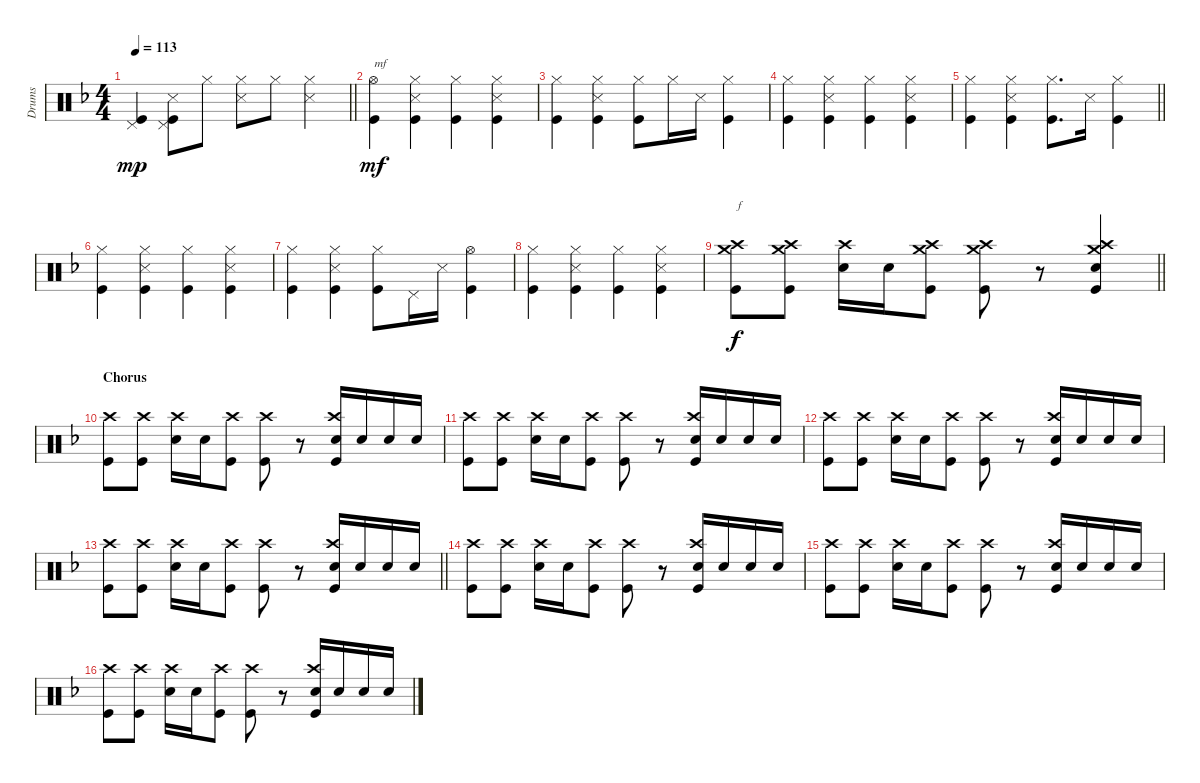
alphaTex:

\track ("Drums" "Drums") {instrument percussion}
\staff {score}
\articulation defaults
\ts (4 4)
\tempo 113
\clef neutral
\barLineRight lightlight
\ks dminor
("Pedal Hi-Hat (hit)" "Kick (hit)").4{dy mp} ("Pedal Hi-Hat (hit)" "Snare (side stick) 3" "Kick (hit)").8 "Hi-Hat (closed)".8 ("Hi-Hat (closed)" "Snare (side stick) 3").8 "Hi-Hat (closed)".8 ("Hi-Hat (closed)" "Snare (side stick) 3").4 |
\section ("" "")
("Hi-Hat (open)" "Kick (hit)").4{txt "mf" dy mf} ("Hi-Hat (closed)" "Snare (side stick) 3" "Kick (hit)").4 ("Hi-Hat (closed)" "Kick (hit)").4 ("Hi-Hat (closed)" "Snare (side stick) 3" "Kick (hit)").4 |
("Hi-Hat (closed)" "Kick (hit)").4 ("Hi-Hat (closed)" "Snare (side stick) 3" "Kick (hit)").4 ("Hi-Hat (closed)" "Kick (hit)").8 "Hi-Hat (closed)".16 "Snare (side stick) 3".16 ("Hi-Hat (closed)" "Kick (hit)").4 |
("Hi-Hat (closed)" "Kick (hit)").4 ("Hi-Hat (closed)" "Snare (side stick) 3" "Kick (hit)").4 ("Hi-Hat (closed)" "Kick (hit)").4 ("Hi-Hat (closed)" "Snare (side stick) 3" "Kick (hit)").4 |
\barLineRight lightlight
("Hi-Hat (closed)" "Kick (hit)").4 ("Hi-Hat (closed)" "Snare (side stick) 3" "Kick (hit)").4 ("Hi-Hat (closed)" "Kick (hit)").8{d} "Snare (side stick) 3".16 ("Hi-Hat (closed)" "Kick (hit)").4 |
\section ("" "")
("Hi-Hat (closed)" "Kick (hit)").4 ("Hi-Hat (closed)" "Snare (side stick) 3" "Kick (hit)").4 ("Hi-Hat (closed)" "Kick (hit)").4 ("Hi-Hat (closed)" "Snare (side stick) 3" "Kick (hit)").4 |
("Hi-Hat (closed)" "Kick (hit)").4 ("Hi-Hat (closed)" "Snare (side stick) 3" "Kick (hit)").4 ("Hi-Hat (closed)" "Kick (hit)").8 "Pedal Hi-Hat (hit)".16 "Snare (side stick) 3".16 ("Hi-Hat (open)" "Kick (hit)").4 |
("Hi-Hat (closed)" "Kick (hit)").4 ("Hi-Hat (closed)" "Snare (side stick) 3" "Kick (hit)").4 ("Hi-Hat (closed)" "Kick (hit)").4 ("Hi-Hat (closed)" "Snare (side stick) 3" "Kick (hit)").4 |
\barLineRight lightlight
("Crash high (hit)" "Crash medium (hit)" "Kick (hit)").8{txt "f" dy f} ("Crash high (hit)" "Crash medium (hit)" "Kick (hit)").8 ("Crash high (hit)" "Electric Snare (hit)").16 "Electric Snare (hit)".16 ("Crash high (hit)" "Crash medium (hit)" "Kick (hit)").8 ("Crash high (hit)" "Crash medium (hit)" "Kick (hit)").8 r.8 ("Crash high (hit)" "Crash medium (hit)" "Electric Snare (hit)" "Kick (hit)").4 |
\section ("" "Chorus")
("Crash high (hit)" "Kick (hit)").8 ("Crash high (hit)" "Kick (hit)").8 ("Crash high (hit)" "Electric Snare (hit)").16 "Electric Snare (hit)".16 ("Crash high (hit)" "Kick (hit)").8 ("Crash high (hit)" "Kick (hit)").8 r.8 ("Crash high (hit)" "Electric Snare (hit)" "Kick (hit)").16 "Electric Snare (hit)".16 "Electric Snare (hit)".16 "Electric Snare (hit)".16 |
("Crash high (hit)" "Kick (hit)").8 ("Crash high (hit)" "Kick (hit)").8 ("Crash high (hit)" "Electric Snare (hit)").16 "Electric Snare (hit)".16 ("Crash high (hit)" "Kick (hit)").8 ("Crash high (hit)" "Kick (hit)").8 r.8 ("Crash high (hit)" "Electric Snare (hit)" "Kick (hit)").16 "Electric Snare (hit)".16 "Electric Snare (hit)".16 "Electric Snare (hit)".16 |
("Crash high (hit)" "Kick (hit)").8 ("Crash high (hit)" "Kick (hit)").8 ("Crash high (hit)" "Electric Snare (hit)").16 "Electric Snare (hit)".16 ("Crash high (hit)" "Kick (hit)").8 ("Crash high (hit)" "Kick (hit)").8 r.8 ("Crash high (hit)" "Electric Snare (hit)" "Kick (hit)").16 "Electric Snare (hit)".16 "Electric Snare (hit)".16 "Electric Snare (hit)".16 |
\barLineRight lightlight
("Crash high (hit)" "Kick (hit)").8 ("Crash high (hit)" "Kick (hit)").8 ("Crash high (hit)" "Electric Snare (hit)").16 "Electric Snare (hit)".16 ("Crash high (hit)" "Kick (hit)").8 ("Crash high (hit)" "Kick (hit)").8 r.8 ("Crash high (hit)" "Electric Snare (hit)" "Kick (hit)").16 "Electric Snare (hit)".16 "Electric Snare (hit)".16 "Electric Snare (hit)".16 |
\section ("" "")
("Crash high (hit)" "Kick (hit)").8 ("Crash high (hit)" "Kick (hit)").8 ("Crash high (hit)" "Electric Snare (hit)").16 "Electric Snare (hit)".16 ("Crash high (hit)" "Kick (hit)").8 ("Crash high (hit)" "Kick (hit)").8 r.8 ("Crash high (hit)" "Electric Snare (hit)" "Kick (hit)").16 "Electric Snare (hit)".16 "Electric Snare (hit)".16 "Electric Snare (hit)".16 |
("Crash high (hit)" "Kick (hit)").8 ("Crash high (hit)" "Kick (hit)").8 ("Crash high (hit)" "Electric Snare (hit)").16 "Electric Snare (hit)".16 ("Crash high (hit)" "Kick (hit)").8 ("Crash high (hit)" "Kick (hit)").8 r.8 ("Crash high (hit)" "Electric Snare (hit)" "Kick (hit)").16 "Electric Snare (hit)".16 "Electric Snare (hit)".16 "Electric Snare (hit)".16 |
("Crash high (hit)" "Kick (hit)").8 ("Crash high (hit)" "Kick (hit)").8 ("Crash high (hit)" "Electric Snare (hit)").16 "Electric Snare (hit)".16 ("Crash high (hit)" "Kick (hit)").8 ("Crash high (hit)" "Kick (hit)").8 r.8 ("Crash high (hit)" "Electric Snare (hit)" "Kick (hit)").16 "Electric Snare (hit)".16 "Electric Snare (hit)".16 "Electric Snare (hit)".16
